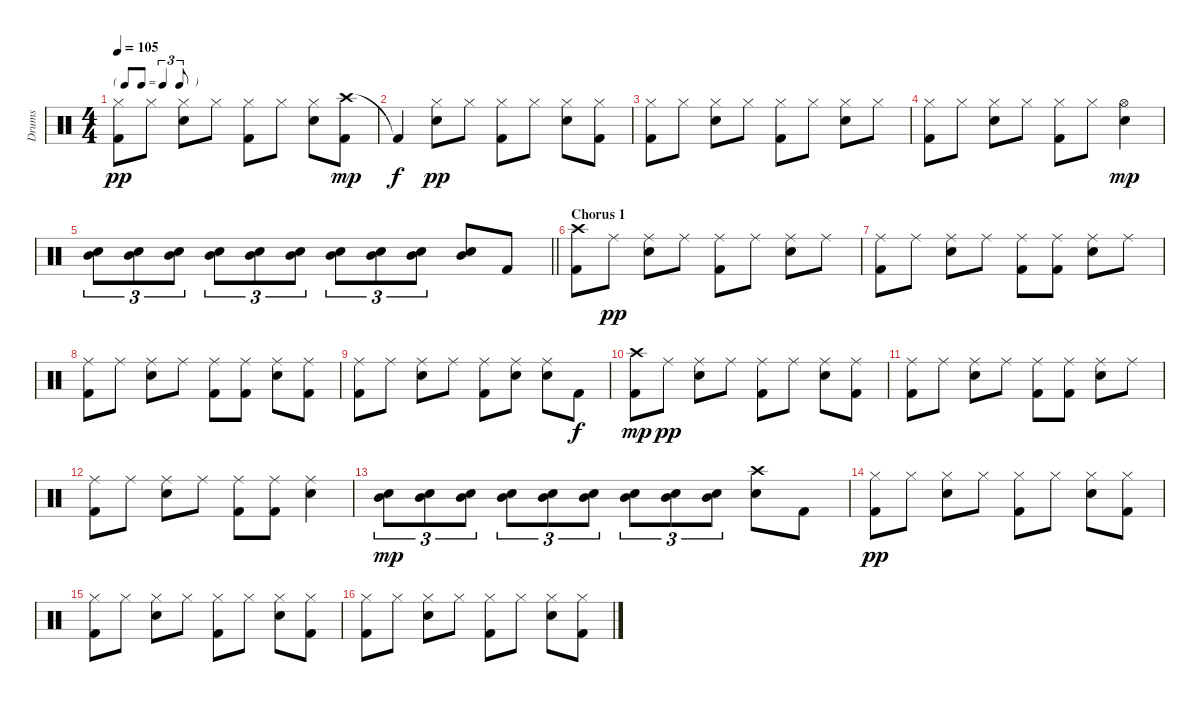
\track ("Drums" "Drums") {instrument percussion}
\staff {score}
\articulation defaults
\ts (4 4)
\tf triplet8th
\tempo 105
\clef neutral
\ks c
("Hi-Hat (closed)" "Kick (hit) 2").8{dy pp} "Hi-Hat (closed)".8 ("Hi-Hat (closed)" "Electric Snare (hit)").8 "Hi-Hat (closed)".8 ("Hi-Hat (closed)" "Kick (hit) 2").8 "Hi-Hat (closed)".8 ("Hi-Hat (closed)" "Electric Snare (hit)").8 ("Crash high (hit)" "Kick (hit) 2").8{dy mp} |
"Kick (hit) 2"{t}.4{dy f} ("Hi-Hat (closed)" "Electric Snare (hit)").8{dy pp} "Hi-Hat (closed)".8 ("Hi-Hat (closed)" "Kick (hit) 2").8 "Hi-Hat (closed)".8 ("Hi-Hat (closed)" "Electric Snare (hit)").8 ("Hi-Hat (closed)" "Kick (hit) 2").8 |
("Hi-Hat (closed)" "Kick (hit) 2").8 "Hi-Hat (closed)".8 ("Hi-Hat (closed)" "Electric Snare (hit)").8 "Hi-Hat (closed)".8 ("Hi-Hat (closed)" "Kick (hit) 2").8 "Hi-Hat (closed)".8 ("Hi-Hat (closed)" "Electric Snare (hit)").8 "Hi-Hat (closed)".8 |
("Hi-Hat (closed)" "Kick (hit) 2").8 "Hi-Hat (closed)".8 ("Hi-Hat (closed)" "Electric Snare (hit)").8 "Hi-Hat (closed)".8 ("Hi-Hat (closed)" "Kick (hit) 2").8 "Hi-Hat (closed)".8 ("Hi-Hat (open)" "Electric Snare (hit)").4{dy mp} |
\barLineRight lightlight
("Electric Snare (hit)" "Mid Tom (hit)").8{tu (3 2)} ("Electric Snare (hit)" "Mid Tom (hit)").8{tu (3 2)} ("Electric Snare (hit)" "Mid Tom (hit)").8{tu (3 2)} ("Electric Snare (hit)" "Mid Tom (hit)").8{tu (3 2)} ("Electric Snare (hit)" "Mid Tom (hit)").8{tu (3 2)} ("Electric Snare (hit)" "Mid Tom (hit)").8{tu (3 2)} ("Electric Snare (hit)" "Mid Tom (hit)").8{tu (3 2)} ("Electric Snare (hit)" "Mid Tom (hit)").8{tu (3 2)} ("Electric Snare (hit)" "Mid Tom (hit)").8{tu (3 2)} ("Electric Snare (hit)" "Mid Tom (hit)").8 "Kick (hit) 2".8 |
\section ("" "Chorus 1")
("Crash high (hit)" "Kick (hit) 2").8 "Ride (middle)".8{dy pp} ("Ride (middle)" "Electric Snare (hit)").8 "Ride (middle)".8 ("Ride (middle)" "Kick (hit) 2").8 "Ride (middle)".8 ("Ride (middle)" "Electric Snare (hit)").8 "Ride (middle)".8 |
("Ride (middle)" "Kick (hit) 2").8 "Ride (middle)".8 ("Ride (middle)" "Electric Snare (hit)").8 "Ride (middle)".8 ("Ride (middle)" "Kick (hit) 2").8 ("Ride (middle)" "Kick (hit) 2").8 ("Ride (middle)" "Electric Snare (hit)").8 "Ride (middle)".8 |
("Ride (middle)" "Kick (hit) 2").8 "Ride (middle)".8 ("Ride (middle)" "Electric Snare (hit)").8 "Ride (middle)".8 ("Ride (middle)" "Kick (hit) 2").8 ("Ride (middle)" "Kick (hit) 2").8 ("Ride (middle)" "Electric Snare (hit)").8 ("Ride (middle)" "Kick (hit) 2").8 |
("Ride (middle)" "Kick (hit) 2").8 "Ride (middle)".8 ("Ride (middle)" "Electric Snare (hit)").8 "Ride (middle)".8 ("Ride (middle)" "Kick (hit) 2").8 ("Ride (middle)" "Electric Snare (hit)").8 ("Ride (middle)" "Electric Snare (hit)").8 "Kick (hit) 2".8{dy f} |
("Crash high (hit)" "Kick (hit) 2").8{dy mp} "Ride (middle)".8{dy pp} ("Ride (middle)" "Electric Snare (hit)").8 "Ride (middle)".8 ("Ride (middle)" "Kick (hit) 2").8 "Ride (middle)".8 ("Ride (middle)" "Electric Snare (hit)").8 ("Ride (middle)" "Kick (hit) 2").8 |
("Ride (middle)" "Kick (hit) 2").8 "Ride (middle)".8 ("Ride (middle)" "Electric Snare (hit)").8 "Ride (middle)".8 ("Ride (middle)" "Kick (hit) 2").8 ("Ride (middle)" "Kick (hit) 2").8 ("Ride (middle)" "Electric Snare (hit)").8 "Ride (middle)".8 |
("Ride (middle)" "Kick (hit) 2").8 "Ride (middle)".8 ("Ride (middle)" "Electric Snare (hit)").8 "Ride (middle)".8 ("Ride (middle)" "Kick (hit) 2").8 ("Ride (middle)" "Kick (hit) 2").8 ("Ride (middle)" "Electric Snare (hit)").4 |
("Electric Snare (hit)" "Mid Tom (hit)").8{tu (3 2) dy mp} ("Electric Snare (hit)" "Mid Tom (hit)").8{tu (3 2)} ("Electric Snare (hit)" "Mid Tom (hit)").8{tu (3 2)} ("Electric Snare (hit)" "Mid Tom (hit)").8{tu (3 2)} ("Electric Snare (hit)" "Mid Tom (hit)").8{tu (3 2)} ("Electric Snare (hit)" "Mid Tom (hit)").8{tu (3 2)} ("Electric Snare (hit)" "Mid Tom (hit)").8{tu (3 2)} ("Electric Snare (hit)" "Mid Tom (hit)").8{tu (3 2)} ("Electric Snare (hit)" "Mid Tom (hit)").8{tu (3 2)} ("Crash high (hit)" "Electric Snare (hit)").8 "Kick (hit) 2".8 |
("Hi-Hat (closed)" "Kick (hit) 2").8{dy pp} "Hi-Hat (closed)".8 ("Hi-Hat (closed)" "Electric Snare (hit)").8 "Hi-Hat (closed)".8 ("Hi-Hat (closed)" "Kick (hit) 2").8 "Hi-Hat (closed)".8 ("Hi-Hat (closed)" "Electric Snare (hit)").8 ("Hi-Hat (closed)" "Kick (hit) 2").8 |
("Hi-Hat (closed)" "Kick (hit) 2").8 "Hi-Hat (closed)".8 ("Hi-Hat (closed)" "Electric Snare (hit)").8 "Hi-Hat (closed)".8 ("Hi-Hat (closed)" "Kick (hit) 2").8 "Hi-Hat (closed)".8 ("Hi-Hat (closed)" "Electric Snare (hit)").8 ("Hi-Hat (closed)" "Kick (hit) 2").8 |
("Hi-Hat (closed)" "Kick (hit) 2").8 "Hi-Hat (closed)".8 ("Hi-Hat (closed)" "Electric Snare (hit)").8 "Hi-Hat (closed)".8 ("Hi-Hat (closed)" "Kick (hit) 2").8 "Hi-Hat (closed)".8 ("Hi-Hat (closed)" "Electric Snare (hit)").8 ("Hi-Hat (closed)" "Kick (hit) 2").8
